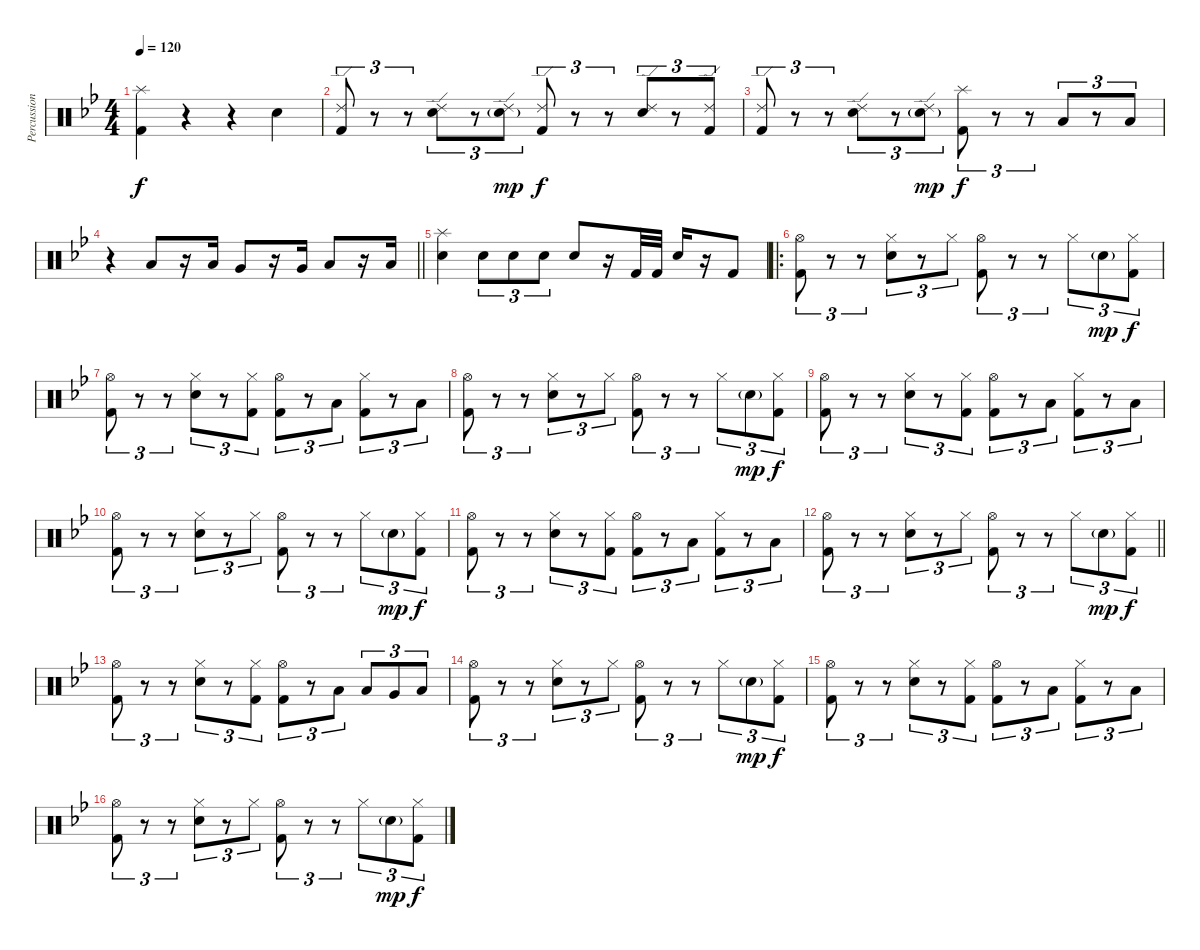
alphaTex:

\track ("Percussion" "Percussion") {instrument percussion}
\staff {score}
\articulation defaults
\ts (4 4)
\tempo 120
\clef neutral
\ks bb
("Splash (hit)" "Kick (hit) 2").4{dy f} r.4 r.4 "Electric Snare (hit)".4 |
("Ride (edge) 2" "Kick (hit) 2").8{tu (3 2)} r.8{tu (3 2)} r.8{tu (3 2)} ("Ride (edge) 2" "Electric Snare (hit)").8{tu (3 2)} r.8{tu (3 2)} ("Ride (edge) 2" "Electric Snare (hit)"{g}).8{tu (3 2) dy mp} ("Ride (edge) 2" "Kick (hit) 2").8{tu (3 2) dy f} r.8{tu (3 2)} r.8{tu (3 2)} ("Ride (edge) 2" "Electric Snare (hit)").8{tu (3 2)} r.8{tu (3 2)} ("Ride (edge) 2" "Kick (hit) 2").8{tu (3 2)} |
("Ride (edge) 2" "Kick (hit) 2").8{tu (3 2)} r.8{tu (3 2)} r.8{tu (3 2)} ("Ride (edge) 2" "Electric Snare (hit)").8{tu (3 2)} r.8{tu (3 2)} ("Ride (edge) 2" "Electric Snare (hit)"{g}).8{tu (3 2) dy mp} ("Splash (hit)" "Kick (hit) 2").8{tu (3 2) dy f} r.8{tu (3 2)} r.8{tu (3 2)} "Low Tom (hit)".8{tu (3 2)} r.8{tu (3 2)} "Low Tom (hit)".8{tu (3 2)} |
\barLineRight lightlight
r.4 "Low Tom (hit)".8 r.16 "Low Tom (hit)".16 "Very Low Tom (hit)".8 r.16 "Very Low Tom (hit)".16 "Low Floor Tom (hit)".8 r.16 "Low Floor Tom (hit)".16 |
("Splash (hit)" "Electric Snare (hit)").4 "Electric Snare (hit)".8{tu (3 2)} "Electric Snare (hit)".8{tu (3 2)} "Electric Snare (hit)".8{tu (3 2)} "Electric Snare (hit)".8 r.16 "Kick (hit) 2".32 "Kick (hit) 2".32 "Electric Snare (hit)".16 r.16 "Kick (hit) 2".8 |
\ro
("Hi-Hat (open)" "Kick (hit) 2").8{tu (3 2)} r.8{tu (3 2)} r.8{tu (3 2)} ("Hi-Hat (closed)" "Electric Snare (hit)").8{tu (3 2)} r.8{tu (3 2)} "Hi-Hat (closed)".8{tu (3 2)} ("Hi-Hat (open)" "Kick (hit) 2").8{tu (3 2)} r.8{tu (3 2)} r.8{tu (3 2)} "Hi-Hat (closed)".8{tu (3 2)} "Electric Snare (hit)"{g}.8{tu (3 2) dy mp} ("Hi-Hat (closed)" "Kick (hit) 2").8{tu (3 2) dy f} |
("Hi-Hat (open)" "Kick (hit) 2").8{tu (3 2)} r.8{tu (3 2)} r.8{tu (3 2)} ("Hi-Hat (closed)" "Electric Snare (hit)").8{tu (3 2)} r.8{tu (3 2)} ("Hi-Hat (closed)" "Kick (hit) 2").8{tu (3 2)} ("Hi-Hat (open)" "Kick (hit) 2").8{tu (3 2)} r.8{tu (3 2)} "Low Tom (hit)".8{tu (3 2)} ("Hi-Hat (closed)" "Kick (hit) 2").8{tu (3 2)} r.8{tu (3 2)} "Low Tom (hit)".8{tu (3 2)} |
("Hi-Hat (open)" "Kick (hit) 2").8{tu (3 2)} r.8{tu (3 2)} r.8{tu (3 2)} ("Hi-Hat (closed)" "Electric Snare (hit)").8{tu (3 2)} r.8{tu (3 2)} "Hi-Hat (closed)".8{tu (3 2)} ("Hi-Hat (open)" "Kick (hit) 2").8{tu (3 2)} r.8{tu (3 2)} r.8{tu (3 2)} "Hi-Hat (closed)".8{tu (3 2)} "Electric Snare (hit)"{g}.8{tu (3 2) dy mp} ("Hi-Hat (closed)" "Kick (hit) 2").8{tu (3 2) dy f} |
("Hi-Hat (open)" "Kick (hit) 2").8{tu (3 2)} r.8{tu (3 2)} r.8{tu (3 2)} ("Hi-Hat (closed)" "Electric Snare (hit)").8{tu (3 2)} r.8{tu (3 2)} ("Hi-Hat (closed)" "Kick (hit) 2").8{tu (3 2)} ("Hi-Hat (open)" "Kick (hit) 2").8{tu (3 2)} r.8{tu (3 2)} "Low Tom (hit)".8{tu (3 2)} ("Hi-Hat (closed)" "Kick (hit) 2").8{tu (3 2)} r.8{tu (3 2)} "Low Tom (hit)".8{tu (3 2)} |
("Hi-Hat (open)" "Kick (hit) 2").8{tu (3 2)} r.8{tu (3 2)} r.8{tu (3 2)} ("Hi-Hat (closed)" "Electric Snare (hit)").8{tu (3 2)} r.8{tu (3 2)} "Hi-Hat (closed)".8{tu (3 2)} ("Hi-Hat (open)" "Kick (hit) 2").8{tu (3 2)} r.8{tu (3 2)} r.8{tu (3 2)} "Hi-Hat (closed)".8{tu (3 2)} "Electric Snare (hit)"{g}.8{tu (3 2) dy mp} ("Hi-Hat (closed)" "Kick (hit) 2").8{tu (3 2) dy f} |
("Hi-Hat (open)" "Kick (hit) 2").8{tu (3 2)} r.8{tu (3 2)} r.8{tu (3 2)} ("Hi-Hat (closed)" "Electric Snare (hit)").8{tu (3 2)} r.8{tu (3 2)} ("Hi-Hat (closed)" "Kick (hit) 2").8{tu (3 2)} ("Hi-Hat (open)" "Kick (hit) 2").8{tu (3 2)} r.8{tu (3 2)} "Low Tom (hit)".8{tu (3 2)} ("Hi-Hat (closed)" "Kick (hit) 2").8{tu (3 2)} r.8{tu (3 2)} "Low Tom (hit)".8{tu (3 2)} |
\barLineRight lightlight
("Hi-Hat (open)" "Kick (hit) 2").8{tu (3 2)} r.8{tu (3 2)} r.8{tu (3 2)} ("Hi-Hat (closed)" "Electric Snare (hit)").8{tu (3 2)} r.8{tu (3 2)} "Hi-Hat (closed)".8{tu (3 2)} ("Hi-Hat (open)" "Kick (hit) 2").8{tu (3 2)} r.8{tu (3 2)} r.8{tu (3 2)} "Hi-Hat (closed)".8{tu (3 2)} "Electric Snare (hit)"{g}.8{tu (3 2) dy mp} ("Hi-Hat (closed)" "Kick (hit) 2").8{tu (3 2) dy f} |
("Hi-Hat (open)" "Kick (hit) 2").8{tu (3 2)} r.8{tu (3 2)} r.8{tu (3 2)} ("Hi-Hat (closed)" "Electric Snare (hit)").8{tu (3 2)} r.8{tu (3 2)} ("Hi-Hat (closed)" "Kick (hit) 2").8{tu (3 2)} ("Hi-Hat (open)" "Kick (hit) 2").8{tu (3 2)} r.8{tu (3 2)} "Low Tom (hit)".8{tu (3 2)} "Low Tom (hit)".8{tu (3 2)} "Very Low Tom (hit)".8{tu (3 2)} "Low Floor Tom (hit)".8{tu (3 2)} |
("Hi-Hat (open)" "Kick (hit) 2").8{tu (3 2)} r.8{tu (3 2)} r.8{tu (3 2)} ("Hi-Hat (closed)" "Electric Snare (hit)").8{tu (3 2)} r.8{tu (3 2)} "Hi-Hat (closed)".8{tu (3 2)} ("Hi-Hat (open)" "Kick (hit) 2").8{tu (3 2)} r.8{tu (3 2)} r.8{tu (3 2)} "Hi-Hat (closed)".8{tu (3 2)} "Electric Snare (hit)"{g}.8{tu (3 2) dy mp} ("Hi-Hat (closed)" "Kick (hit) 2").8{tu (3 2) dy f} |
("Hi-Hat (open)" "Kick (hit) 2").8{tu (3 2)} r.8{tu (3 2)} r.8{tu (3 2)} ("Hi-Hat (closed)" "Electric Snare (hit)").8{tu (3 2)} r.8{tu (3 2)} ("Hi-Hat (closed)" "Kick (hit) 2").8{tu (3 2)} ("Hi-Hat (open)" "Kick (hit) 2").8{tu (3 2)} r.8{tu (3 2)} "Low Tom (hit)".8{tu (3 2)} ("Hi-Hat (closed)" "Kick (hit) 2").8{tu (3 2)} r.8{tu (3 2)} "Low Tom (hit)".8{tu (3 2)} |
("Hi-Hat (open)" "Kick (hit) 2").8{tu (3 2)} r.8{tu (3 2)} r.8{tu (3 2)} ("Hi-Hat (closed)" "Electric Snare (hit)").8{tu (3 2)} r.8{tu (3 2)} "Hi-Hat (closed)".8{tu (3 2)} ("Hi-Hat (open)" "Kick (hit) 2").8{tu (3 2)} r.8{tu (3 2)} r.8{tu (3 2)} "Hi-Hat (closed)".8{tu (3 2)} "Electric Snare (hit)"{g}.8{tu (3 2) dy mp} ("Hi-Hat (closed)" "Kick (hit) 2").8{tu (3 2) dy f}
